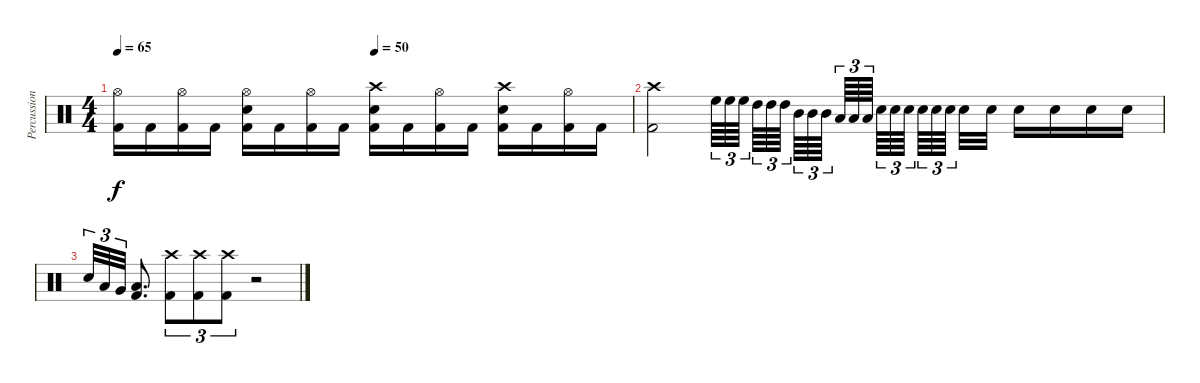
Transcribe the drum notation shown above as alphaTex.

\track ("Percussion" "Percussion") {instrument percussion}
\staff {score}
\articulation defaults
\ts (4 4)
\tempo 65
\tempo (50 0.5)
\clef neutral
\ks c
("Hi-Hat (open)" "Kick (hit) 2").16{dy f} "Kick (hit) 2".16 ("Hi-Hat (open)" "Kick (hit) 2").16 "Kick (hit) 2".16 ("Hi-Hat (open)" "Snare (hit) 2" "Kick (hit) 2").16 "Kick (hit) 2".16 ("Hi-Hat (open)" "Kick (hit) 2").16 "Kick (hit) 2".16 ("Crash high (hit)" "Snare (hit) 2" "Kick (hit) 2").16 "Kick (hit) 2".16 ("Hi-Hat (open)" "Kick (hit) 2").16 "Kick (hit) 2".16 ("Crash high (hit)" "Snare (hit) 2" "Kick (hit) 2").16 "Kick (hit) 2".16 ("Hi-Hat (open)" "Kick (hit) 2").16 "Kick (hit) 2".16 |
("Crash high (hit)" "Kick (hit) 2").2 "High Floor Tom (hit)".64{tu (3 2)} "High Floor Tom (hit)".64{tu (3 2)} "High Floor Tom (hit)".64{tu (3 2)} "High Tom (hit)".64{tu (3 2)} "High Tom (hit)".64{tu (3 2)} "High Tom (hit)".64{tu (3 2)} "Mid Tom (hit)".64{tu (3 2)} "Mid Tom (hit)".64{tu (3 2)} "Mid Tom (hit)".64{tu (3 2)} "Low Tom (hit)".64{tu (3 2)} "Low Tom (hit)".64{tu (3 2)} "Low Tom (hit)".64{tu (3 2)} "Snare (hit) 2".64{tu (3 2)} "Snare (hit) 2".64{tu (3 2)} "Snare (hit) 2".64{tu (3 2)} "Snare (hit) 2".64{tu (3 2)} "Snare (hit) 2".64{tu (3 2)} "Snare (hit) 2".64{tu (3 2)} "Snare (hit) 2".32 "Snare (hit) 2".32 "Snare (hit) 2".16 "Snare (hit) 2".16 "Snare (hit) 2".16 "Snare (hit) 2".16 |
"Snare (hit) 2".32{tu (3 2)} "Low Tom (hit)".32{tu (3 2)} "Very Low Tom (hit)".32{tu (3 2)} ("Low Floor Tom (hit)" "Kick (hit) 2").8{d} ("Crash high (hit)" "Kick (hit) 2").8{tu (3 2)} ("Crash high (hit)" "Kick (hit) 2").8{tu (3 2)} ("Crash high (hit)" "Kick (hit) 2").8{tu (3 2)} r.2
